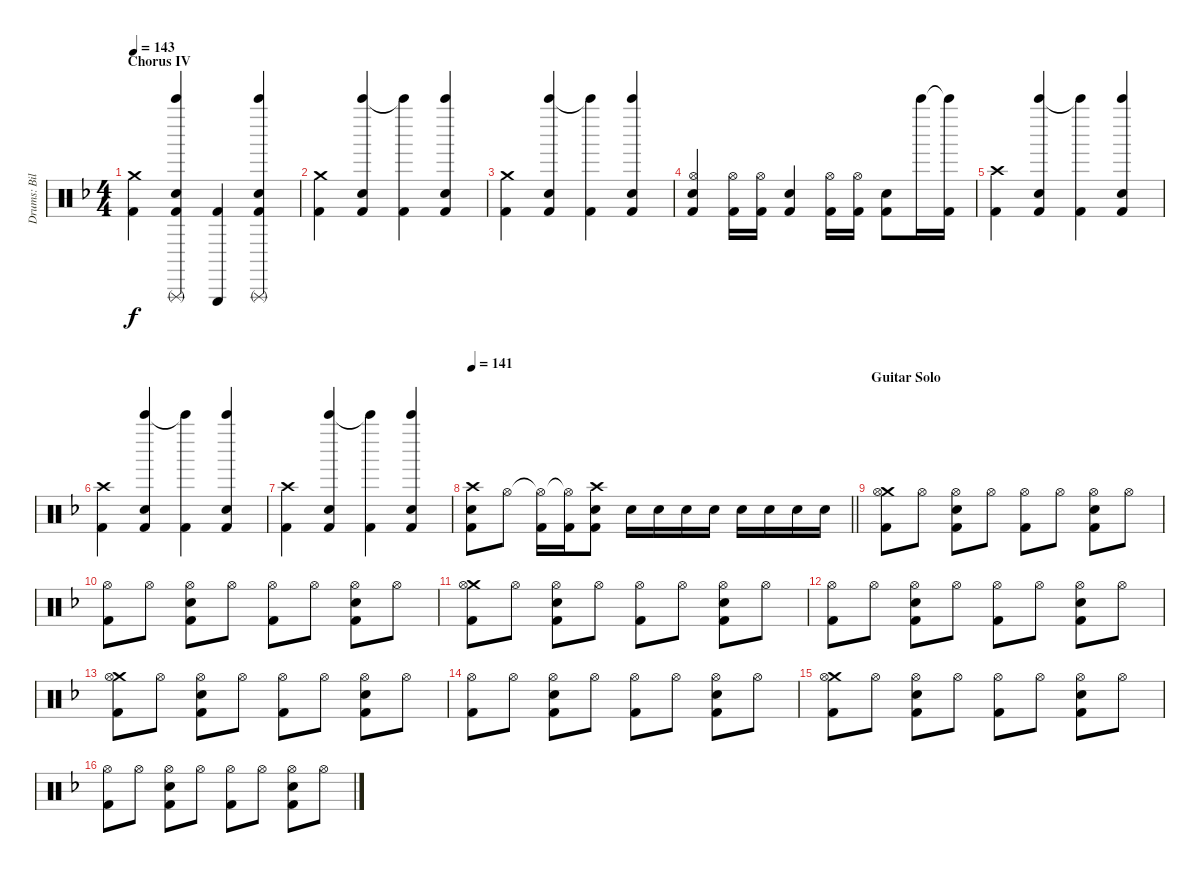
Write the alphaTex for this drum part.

\track ("Drums: Bill" "Drums: Bil") {instrument percussion}
\staff {score}
\articulation defaults
\ts (4 4)
\section ("" "Chorus IV")
\tempo 143
\clef neutral
\ks f
("Crash medium (hit)" "Kick (hit) 2").4{dy f} ("Triangle (rnute)" "Bell Tree (hit)" "Electric Snare (hit)" "Kick (hit) 2").4 ("Triangle (hit)" "Kick (hit) 2").4 ("Triangle (rnute)" "Bell Tree (hit)" "Electric Snare (hit)" "Kick (hit) 2").4 |
("Crash medium (hit)" "Kick (hit) 2").4 ("Bell Tree (hit)" "Electric Snare (hit)" "Kick (hit) 2").4 ("Bell Tree (hit)"{t} "Kick (hit) 2").4 ("Bell Tree (hit)" "Electric Snare (hit)" "Kick (hit) 2").4 |
("Crash medium (hit)" "Kick (hit) 2").4 ("Bell Tree (hit)" "Electric Snare (hit)" "Kick (hit) 2").4 ("Bell Tree (hit)"{t} "Kick (hit) 2").4 ("Bell Tree (hit)" "Electric Snare (hit)" "Kick (hit) 2").4 |
("Hi-Hat (open)" "Snare (hit) 2" "Kick (hit) 2").4 ("Hi-Hat (open)" "Kick (hit) 2").16 ("Hi-Hat (open)" "Kick (hit) 2").16 ("Snare (hit) 2" "Kick (hit) 2").4 ("Hi-Hat (open)" "Kick (hit) 2").16 ("Hi-Hat (open)" "Kick (hit) 2").16 ("Snare (hit) 2" "Kick (hit) 2").8 "Bell Tree (hit)".16 ("Bell Tree (hit)"{t} "Kick (hit) 2").16 |
("Crash high (hit)" "Kick (hit) 2").4 ("Bell Tree (hit)" "Electric Snare (hit)" "Kick (hit) 2").4 ("Bell Tree (hit)"{t} "Kick (hit) 2").4 ("Bell Tree (hit)" "Electric Snare (hit)" "Kick (hit) 2").4 |
("Crash high (hit)" "Kick (hit) 2").4 ("Bell Tree (hit)" "Electric Snare (hit)" "Kick (hit) 2").4 ("Bell Tree (hit)"{t} "Kick (hit) 2").4 ("Bell Tree (hit)" "Electric Snare (hit)" "Kick (hit) 2").4 |
("Crash high (hit)" "Kick (hit) 2").4 ("Bell Tree (hit)" "Electric Snare (hit)" "Kick (hit) 2").4 ("Bell Tree (hit)"{t} "Kick (hit) 2").4 ("Bell Tree (hit)" "Electric Snare (hit)" "Kick (hit) 2").4 |
\tempo 141
\barLineRight lightlight
("Crash high (hit)" "Snare (hit) 2" "Kick (hit) 2").8 "Hi-Hat (open)".8 ("Hi-Hat (open)"{t} "Kick (hit) 2").16 ("Hi-Hat (open)"{t} "Kick (hit) 2").16 ("Crash high (hit)" "Snare (hit) 2" "Kick (hit) 2").8 "Snare (hit) 2".16 "Snare (hit) 2".16 "Snare (hit) 2".16 "Snare (hit) 2".16 "Snare (hit) 2".16 "Snare (hit) 2".16 "Snare (hit) 2".16 "Snare (hit) 2".16 |
\section ("" "Guitar Solo")
("Crash medium (hit)" "Hi-Hat (open)" "Kick (hit) 2").8 "Hi-Hat (open)".8 ("Hi-Hat (open)" "Snare (hit) 2" "Kick (hit) 2").8 "Hi-Hat (open)".8 ("Hi-Hat (open)" "Kick (hit) 2").8 "Hi-Hat (open)".8 ("Hi-Hat (open)" "Snare (hit) 2" "Kick (hit) 2").8 "Hi-Hat (open)".8 |
("Hi-Hat (open)" "Kick (hit) 2").8 "Hi-Hat (open)".8 ("Hi-Hat (open)" "Snare (hit) 2" "Kick (hit) 2").8 "Hi-Hat (open)".8 ("Hi-Hat (open)" "Kick (hit) 2").8 "Hi-Hat (open)".8 ("Hi-Hat (open)" "Snare (hit) 2" "Kick (hit) 2").8 "Hi-Hat (open)".8 |
("Crash medium (hit)" "Hi-Hat (open)" "Kick (hit) 2").8 "Hi-Hat (open)".8 ("Hi-Hat (open)" "Snare (hit) 2" "Kick (hit) 2").8 "Hi-Hat (open)".8 ("Hi-Hat (open)" "Kick (hit) 2").8 "Hi-Hat (open)".8 ("Hi-Hat (open)" "Snare (hit) 2" "Kick (hit) 2").8 "Hi-Hat (open)".8 |
("Hi-Hat (open)" "Kick (hit) 2").8 "Hi-Hat (open)".8 ("Hi-Hat (open)" "Snare (hit) 2" "Kick (hit) 2").8 "Hi-Hat (open)".8 ("Hi-Hat (open)" "Kick (hit) 2").8 "Hi-Hat (open)".8 ("Hi-Hat (open)" "Snare (hit) 2" "Kick (hit) 2").8 "Hi-Hat (open)".8 |
("Crash medium (hit)" "Hi-Hat (open)" "Kick (hit) 2").8 "Hi-Hat (open)".8 ("Hi-Hat (open)" "Snare (hit) 2" "Kick (hit) 2").8 "Hi-Hat (open)".8 ("Hi-Hat (open)" "Kick (hit) 2").8 "Hi-Hat (open)".8 ("Hi-Hat (open)" "Snare (hit) 2" "Kick (hit) 2").8 "Hi-Hat (open)".8 |
("Hi-Hat (open)" "Kick (hit) 2").8 "Hi-Hat (open)".8 ("Hi-Hat (open)" "Snare (hit) 2" "Kick (hit) 2").8 "Hi-Hat (open)".8 ("Hi-Hat (open)" "Kick (hit) 2").8 "Hi-Hat (open)".8 ("Hi-Hat (open)" "Snare (hit) 2" "Kick (hit) 2").8 "Hi-Hat (open)".8 |
("Crash medium (hit)" "Hi-Hat (open)" "Kick (hit) 2").8 "Hi-Hat (open)".8 ("Hi-Hat (open)" "Snare (hit) 2" "Kick (hit) 2").8 "Hi-Hat (open)".8 ("Hi-Hat (open)" "Kick (hit) 2").8 "Hi-Hat (open)".8 ("Hi-Hat (open)" "Snare (hit) 2" "Kick (hit) 2").8 "Hi-Hat (open)".8 |
("Hi-Hat (open)" "Kick (hit) 2").8 "Hi-Hat (open)".8 ("Hi-Hat (open)" "Snare (hit) 2" "Kick (hit) 2").8 "Hi-Hat (open)".8 ("Hi-Hat (open)" "Kick (hit) 2").8 "Hi-Hat (open)".8 ("Hi-Hat (open)" "Snare (hit) 2" "Kick (hit) 2").8 "Hi-Hat (open)".8
